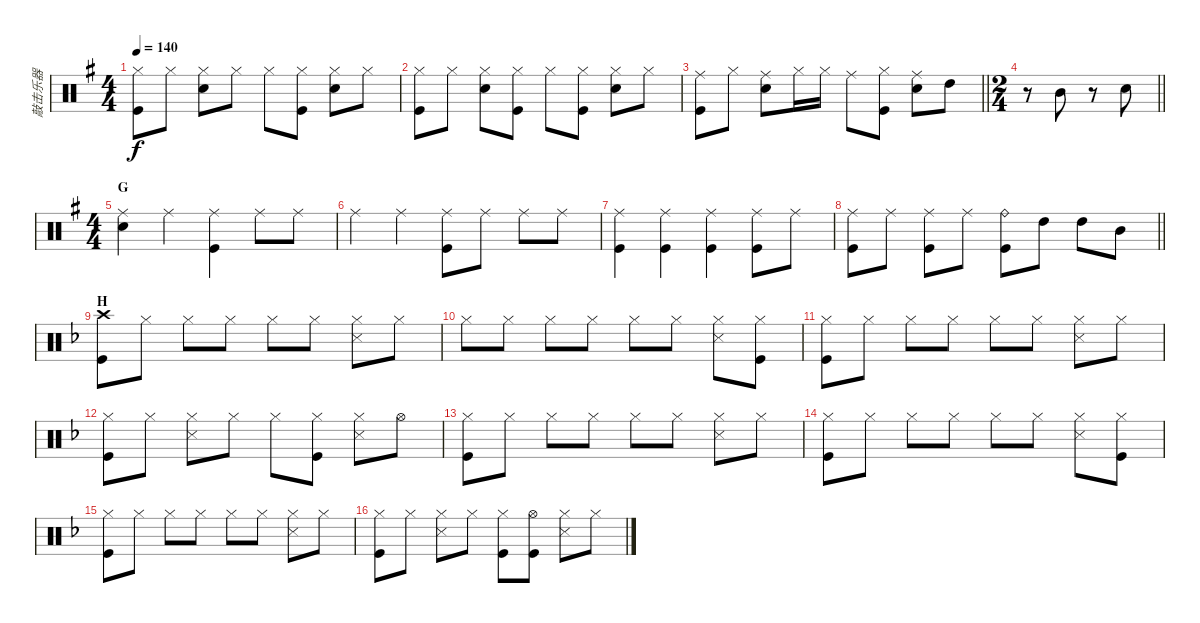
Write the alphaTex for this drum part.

\track ("敲击乐器" "敲击乐器") {instrument percussion}
\staff {score}
\articulation defaults
\ts (4 4)
\tempo 140
\clef neutral
\ks g
("Hi-Hat (closed)" "Kick (hit)").8{dy f} "Hi-Hat (closed)".8 ("Hi-Hat (closed)" "Snare (hit) 2").8 "Hi-Hat (closed)".8 "Hi-Hat (closed)".8 ("Hi-Hat (closed)" "Kick (hit)").8 ("Hi-Hat (closed)" "Snare (hit) 2").8 "Hi-Hat (closed)".8 |
("Hi-Hat (closed)" "Kick (hit)").8 "Hi-Hat (closed)".8 ("Hi-Hat (closed)" "Snare (hit) 2").8 ("Hi-Hat (closed)" "Kick (hit)").8 "Hi-Hat (closed)".8 ("Hi-Hat (closed)" "Kick (hit)").8 ("Hi-Hat (closed)" "Snare (hit) 2").8 "Hi-Hat (closed)".8 |
\barLineRight lightlight
("Ride (middle)" "Kick (hit)").8 "Hi-Hat (closed)".8 ("Ride (middle)" "Snare (hit) 2").8 "Hi-Hat (closed)".16 "Hi-Hat (closed)".16 "Ride (middle)".8 ("Hi-Hat (closed)" "Kick (hit)").8 ("Ride (middle)" "Snare (hit) 2").8 "High Tom (hit)".8 |
\ts (2 4)
\barLineRight lightlight
r.8 "Mid Tom (hit)".8 r.8 "Snare (hit) 2".8 |
\ts (4 4)
\section ("" "G")
("Snare (hit) 2" "Ride (middle)").4 "Ride (middle)".4 ("Ride (middle)" "Kick (hit)").4 "Ride (middle)".8 "Ride (middle)".8 |
"Ride (middle)".4 "Ride (middle)".4 ("Ride (middle)" "Kick (hit)").8 "Ride (middle)".8 "Ride (middle)".8 "Ride (middle)".8 |
("Ride (middle)" "Kick (hit)").4 ("Ride (middle)" "Kick (hit)").4 ("Ride (middle)" "Kick (hit)").4 ("Ride (middle)" "Kick (hit)").8 "Ride (middle)".8 |
\barLineRight lightlight
("Ride (middle)" "Kick (hit)").8 "Ride (middle)".8 ("Ride (middle)" "Kick (hit)").8 "Ride (middle)".8 ("Ride (bell)" "Kick (hit)").8 "High Tom (hit)".8 "High Tom (hit)".8 "Mid Tom (hit)".8 |
\section ("" "H")
\ks f
("Crash high (hit)" "Kick (hit)").8 "Hi-Hat (closed)".8 "Hi-Hat (closed)".8 "Hi-Hat (closed)".8 "Hi-Hat (closed)".8 "Hi-Hat (closed)".8 ("Hi-Hat (closed)" "Snare (side stick) 3").8 "Hi-Hat (closed)".8 |
"Hi-Hat (closed)".8 "Hi-Hat (closed)".8 "Hi-Hat (closed)".8 "Hi-Hat (closed)".8 "Hi-Hat (closed)".8 "Hi-Hat (closed)".8 ("Hi-Hat (closed)" "Snare (side stick) 3").8 ("Hi-Hat (closed)" "Kick (hit)").8 |
("Hi-Hat (closed)" "Kick (hit)").8 "Hi-Hat (closed)".8 "Hi-Hat (closed)".8 "Hi-Hat (closed)".8 "Hi-Hat (closed)".8 "Hi-Hat (closed)".8 ("Hi-Hat (closed)" "Snare (side stick) 3").8 "Hi-Hat (closed)".8 |
("Hi-Hat (closed)" "Kick (hit)").8 "Hi-Hat (closed)".8 ("Hi-Hat (closed)" "Snare (side stick) 3").8 "Hi-Hat (closed)".8 "Hi-Hat (closed)".8 ("Hi-Hat (closed)" "Kick (hit)").8 ("Hi-Hat (closed)" "Snare (side stick) 3").8 "Hi-Hat (open)".8 |
("Hi-Hat (closed)" "Kick (hit)").8 "Hi-Hat (closed)".8 "Hi-Hat (closed)".8 "Hi-Hat (closed)".8 "Hi-Hat (closed)".8 "Hi-Hat (closed)".8 ("Hi-Hat (closed)" "Snare (side stick) 3").8 "Hi-Hat (closed)".8 |
("Hi-Hat (closed)" "Kick (hit)").8 "Hi-Hat (closed)".8 "Hi-Hat (closed)".8 "Hi-Hat (closed)".8 "Hi-Hat (closed)".8 "Hi-Hat (closed)".8 ("Hi-Hat (closed)" "Snare (side stick) 3").8 ("Hi-Hat (closed)" "Kick (hit)").8 |
("Hi-Hat (closed)" "Kick (hit)").8 "Hi-Hat (closed)".8 "Hi-Hat (closed)".8 "Hi-Hat (closed)".8 "Hi-Hat (closed)".8 "Hi-Hat (closed)".8 ("Hi-Hat (closed)" "Snare (side stick) 3").8 "Hi-Hat (closed)".8 |
("Hi-Hat (closed)" "Kick (hit)").8 "Hi-Hat (closed)".8 ("Hi-Hat (closed)" "Snare (side stick) 3").8 "Hi-Hat (closed)".8 ("Hi-Hat (closed)" "Kick (hit)").8 ("Hi-Hat (open)" "Kick (hit)").8 ("Hi-Hat (closed)" "Snare (side stick) 3").8 "Hi-Hat (closed)".8
